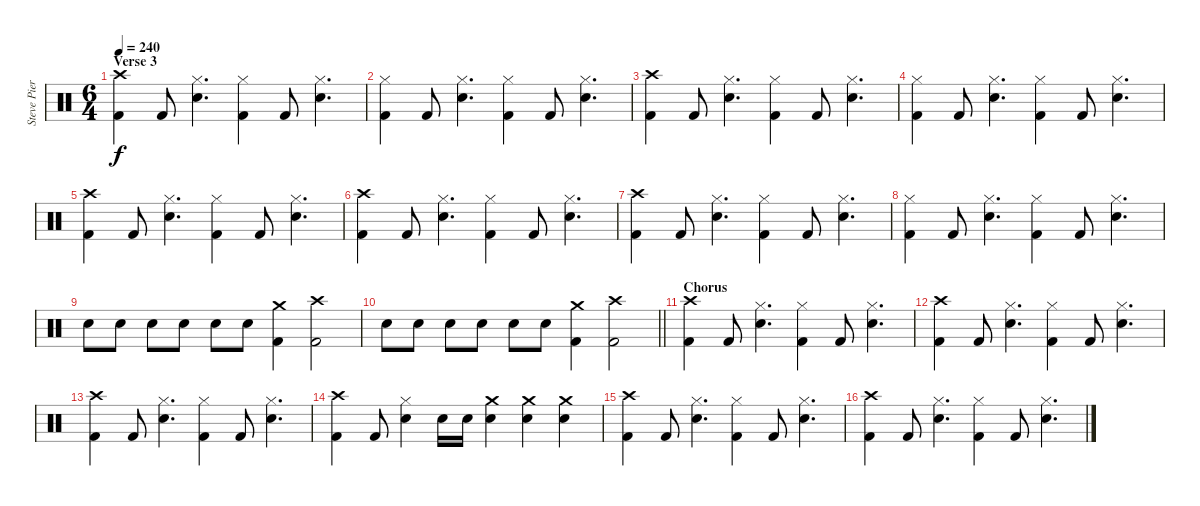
\track ("Steve Pierce" "Steve Pier") {instrument percussion}
\staff {score}
\articulation defaults
\ts (6 4)
\section ("" "Verse 3")
\tempo 240
\clef neutral
\ks c
("Crash high (hit)" "Kick (hit) 2").4{dy f} "Kick (hit) 2".8 ("Hi-Hat (closed)" "Snare (hit) 2").4{d} ("Hi-Hat (closed)" "Kick (hit) 2").4 "Kick (hit) 2".8 ("Hi-Hat (closed)" "Snare (hit) 2").4{d} |
("Hi-Hat (closed)" "Kick (hit) 2").4 "Kick (hit) 2".8 ("Hi-Hat (closed)" "Snare (hit) 2").4{d} ("Hi-Hat (closed)" "Kick (hit) 2").4 "Kick (hit) 2".8 ("Hi-Hat (closed)" "Snare (hit) 2").4{d} |
("Crash high (hit)" "Kick (hit) 2").4 "Kick (hit) 2".8 ("Hi-Hat (closed)" "Snare (hit) 2").4{d} ("Hi-Hat (closed)" "Kick (hit) 2").4 "Kick (hit) 2".8 ("Hi-Hat (closed)" "Snare (hit) 2").4{d} |
("Hi-Hat (closed)" "Kick (hit) 2").4 "Kick (hit) 2".8 ("Hi-Hat (closed)" "Snare (hit) 2").4{d} ("Hi-Hat (closed)" "Kick (hit) 2").4 "Kick (hit) 2".8 ("Hi-Hat (closed)" "Snare (hit) 2").4{d} |
("Crash high (hit)" "Kick (hit) 2").4 "Kick (hit) 2".8 ("Hi-Hat (closed)" "Snare (hit) 2").4{d} ("Hi-Hat (closed)" "Kick (hit) 2").4 "Kick (hit) 2".8 ("Hi-Hat (closed)" "Snare (hit) 2").4{d} |
("Crash high (hit)" "Kick (hit) 2").4 "Kick (hit) 2".8 ("Hi-Hat (closed)" "Snare (hit) 2").4{d} ("Hi-Hat (closed)" "Kick (hit) 2").4 "Kick (hit) 2".8 ("Hi-Hat (closed)" "Snare (hit) 2").4{d} |
("Crash high (hit)" "Kick (hit) 2").4 "Kick (hit) 2".8 ("Hi-Hat (closed)" "Snare (hit) 2").4{d} ("Hi-Hat (closed)" "Kick (hit) 2").4 "Kick (hit) 2".8 ("Hi-Hat (closed)" "Snare (hit) 2").4{d} |
("Hi-Hat (closed)" "Kick (hit) 2").4 "Kick (hit) 2".8 ("Hi-Hat (closed)" "Snare (hit) 2").4{d} ("Hi-Hat (closed)" "Kick (hit) 2").4 "Kick (hit) 2".8 ("Hi-Hat (closed)" "Snare (hit) 2").4{d} |
"Snare (hit) 2".8 "Snare (hit) 2".8 "Snare (hit) 2".8 "Snare (hit) 2".8 "Snare (hit) 2".8 "Snare (hit) 2".8 ("Crash medium (hit)" "Kick (hit) 2").4 ("Crash high (hit)" "Kick (hit) 2").2 |
\barLineRight lightlight "Snare (hit) 2".8 "Snare (hit) 2".8 "Snare (hit) 2".8 "Snare (hit) 2".8 "Snare (hit) 2".8 "Snare (hit) 2".8
("Crash medium (hit)" "Kick (hit) 2").4 ("Crash high (hit)" "Kick (hit) 2").2 |
\section ("" "Chorus")
("Crash high (hit)" "Kick (hit) 2").4 "Kick (hit) 2".8 ("Hi-Hat (closed)" "Snare (hit) 2").4{d} ("Hi-Hat (closed)" "Kick (hit) 2").4 "Kick (hit) 2".8 ("Hi-Hat (closed)" "Snare (hit) 2").4{d} |
("Crash high (hit)" "Kick (hit) 2").4 "Kick (hit) 2".8 ("Hi-Hat (closed)" "Snare (hit) 2").4{d} ("Hi-Hat (closed)" "Kick (hit) 2").4 "Kick (hit) 2".8 ("Hi-Hat (closed)" "Snare (hit) 2").4{d} |
("Crash high (hit)" "Kick (hit) 2").4 "Kick (hit) 2".8 ("Hi-Hat (closed)" "Snare (hit) 2").4{d} ("Hi-Hat (closed)" "Kick (hit) 2").4 "Kick (hit) 2".8 ("Hi-Hat (closed)" "Snare (hit) 2").4{d} |
("Crash high (hit)" "Kick (hit) 2").4 "Kick (hit) 2".8 ("Hi-Hat (closed)" "Snare (hit) 2").4 "Snare (hit) 2".16 "Snare (hit) 2".16 ("Crash medium (hit)" "Snare (hit) 2").4 ("Crash medium (hit)" "Snare (hit) 2").4 ("Crash medium (hit)" "Snare (hit) 2").4 |
("Crash high (hit)" "Kick (hit) 2").4 "Kick (hit) 2".8 ("Hi-Hat (closed)" "Snare (hit) 2").4{d} ("Hi-Hat (closed)" "Kick (hit) 2").4 "Kick (hit) 2".8 ("Hi-Hat (closed)" "Snare (hit) 2").4{d} |
("Crash high (hit)" "Kick (hit) 2").4 "Kick (hit) 2".8 ("Hi-Hat (closed)" "Snare (hit) 2").4{d} ("Hi-Hat (closed)" "Kick (hit) 2").4 "Kick (hit) 2".8 ("Hi-Hat (closed)" "Snare (hit) 2").4{d}
